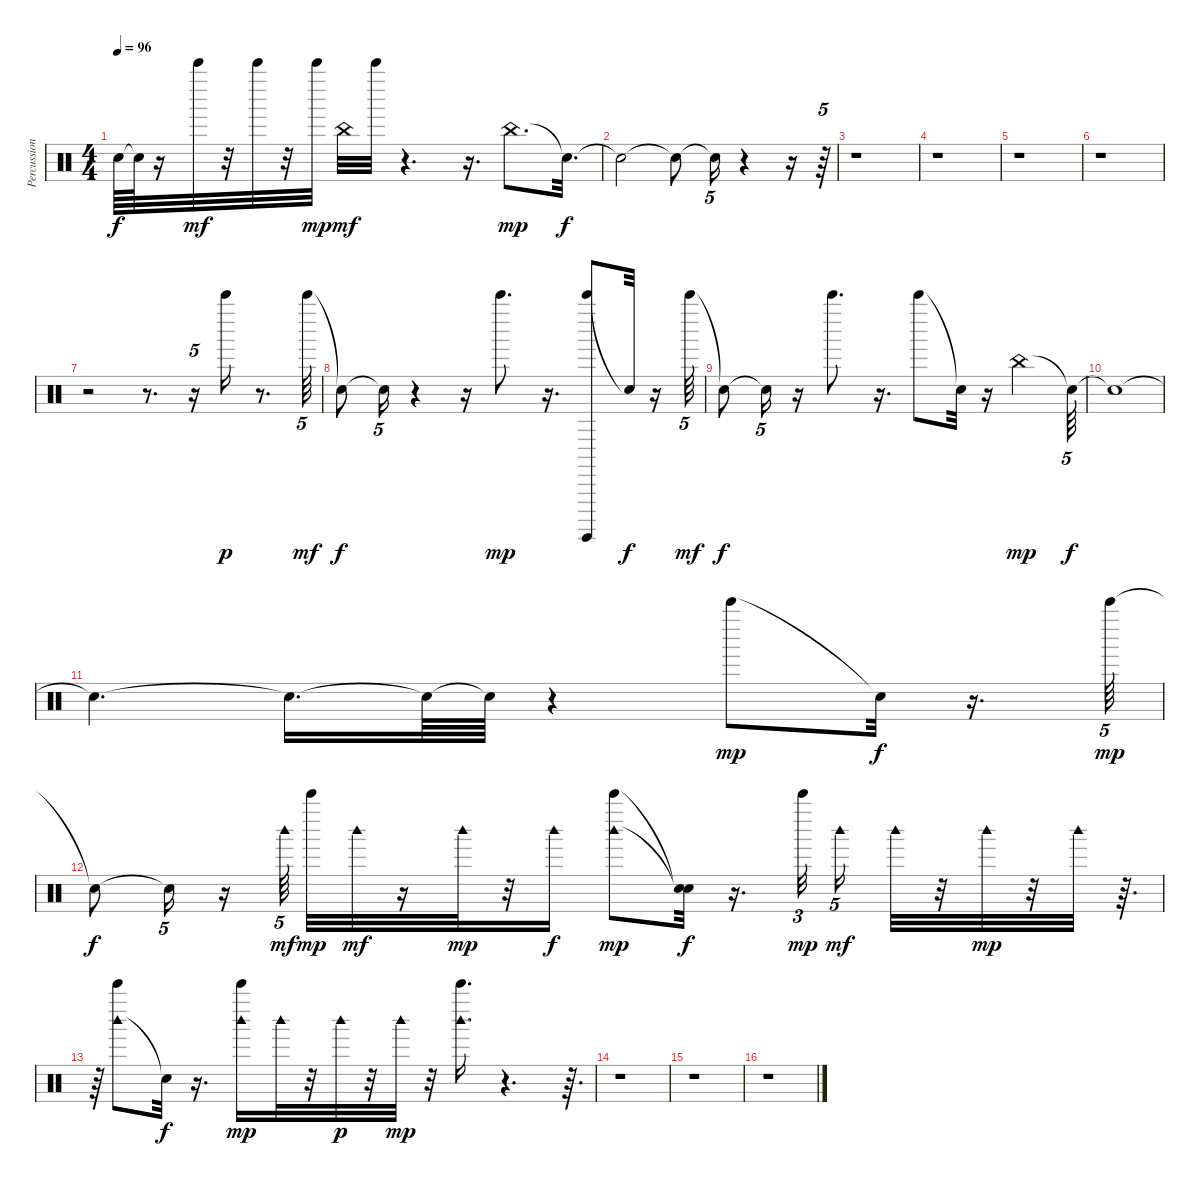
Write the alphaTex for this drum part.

\track ("Percussion" "Percussion") {instrument percussion}
\staff {score}
\articulation defaults
\ts (4 4)
\tempo 96
\clef neutral
\ks c "Snare (hit)"{t}.64{dy f} "Snare (hit)"{t}.64
r.16 "Bell Tree (hit)".32{dy mf} r.32 "Bell Tree (hit)".32 r.32 "Bell Tree (hit)".32{dy mp} "China (hit)".32{dy mf} "Bell Tree (hit)".32 r.4{d} r.16{d} "China (hit)".8{d dy mp} "Snare (hit)"{t}.32{d dy f} |
"Snare (hit)"{t}.2 "Snare (hit)"{t}.8 "Snare (hit)"{t}.16{tu (5 4)} r.4 r.16 r.64{tu (5 4)} |
r.1 |
r.1 |
r.1 |
r.1 |
r.2 r.8{d} r.16{tu (5 4)} "Bell Tree (hit)".16{dy p} r.8{d} "Bell Tree (hit)".64{tu (5 4) dy mf} |
"Snare (hit)"{t}.8{dy f} "Snare (hit)"{t}.16{tu (5 4)} r.4 r.16 "Bell Tree (hit)".8{d dy mp} r.16{d} ("Bell Tree (hit)" "Surdo (hit)").8 "Snare (hit)"{t}.32{dy f} r.16 "Bell Tree (hit)".64{tu (5 4) dy mf} |
"Snare (hit)"{t}.8{dy f} "Snare (hit)"{t}.16{tu (5 4)} r.16 "Bell Tree (hit)".8{d} r.16{d} "Bell Tree (hit)".8 "Snare (hit)"{t}.32 r.16 "China (hit)".4{dy mp} "Snare (hit)"{t}.64{tu (5 4) dy f} |
"Snare (hit)"{t}.1 |
"Snare (hit)"{t}.4{d} "Snare (hit)"{t}.16{d} "Snare (hit)"{t}.64 "Snare (hit)"{t}.64 r.4 "Bell Tree (hit)".8{dy mp} "Snare (hit)"{t}.32{dy f} r.16{d} "Bell Tree (hit)".64{tu (5 4) dy mp} |
"Snare (hit)"{t}.8{dy f} "Snare (hit)"{t}.16{tu (5 4)} r.16 "Woodblock high (hit)".64{tu (5 4) dy mf} "Bell Tree (hit)".32{dy mp} "Woodblock high (hit)".32{dy mf} r.16 "Woodblock high (hit)".32{dy mp} r.32 "Woodblock high (hit)".16{dy f} ("Bell Tree (hit)" "Woodblock high (hit)").8{dy mp} ("Snare (hit)"{t} "Snare (hit)"{t}).32{dy f} r.16{d} "Bell Tree (hit)".32{tu (3 2) dy mp} "Woodblock high (hit)".16{tu (5 4) dy mf} "Woodblock high (hit)".32 r.32 "Woodblock high (hit)".32{dy mp} r.32 "Woodblock high (hit)".32 r.64{d} |
r.64 ("Woodblock high (hit)" "Bell Tree (hit)").8 "Snare (hit)"{t}.32{dy f} r.16{d} ("Woodblock high (hit)" "Bell Tree (hit)").16{dy mp} "Woodblock high (hit)".32 r.32 "Woodblock high (hit)".32{dy p} r.32 "Woodblock high (hit)".32{dy mp} r.32 ("Woodblock high (hit)" "Bell Tree (hit)").16{d} r.4{d} r.64{d} |
r.1 |
r.1 |
r.1
